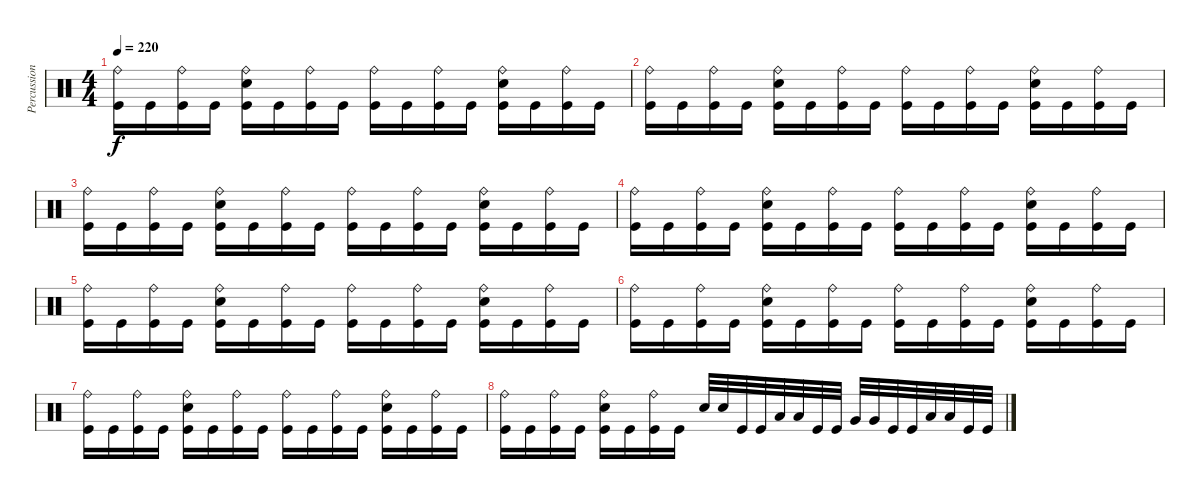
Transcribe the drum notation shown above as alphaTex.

\track ("Percussion" "Percussion") {instrument percussion}
\staff {score}
\articulation defaults
\ts (4 4)
\tempo 220
\clef neutral
\ks c
("Ride (bell)" "Kick (hit)").16{dy f} "Kick (hit)".16 ("Ride (bell)" "Kick (hit)").16 "Kick (hit)".16 ("Ride (bell)" "Snare (hit) 2" "Kick (hit)").16 "Kick (hit)".16 ("Ride (bell)" "Kick (hit)").16 "Kick (hit)".16 ("Ride (bell)" "Kick (hit)").16 "Kick (hit)".16 ("Ride (bell)" "Kick (hit)").16 "Kick (hit)".16 ("Ride (bell)" "Snare (hit) 2" "Kick (hit)").16 "Kick (hit)".16 ("Ride (bell)" "Kick (hit)").16 "Kick (hit)".16 |
("Ride (bell)" "Kick (hit)").16 "Kick (hit)".16 ("Ride (bell)" "Kick (hit)").16 "Kick (hit)".16 ("Ride (bell)" "Snare (hit) 2" "Kick (hit)").16 "Kick (hit)".16 ("Ride (bell)" "Kick (hit)").16 "Kick (hit)".16 ("Ride (bell)" "Kick (hit)").16 "Kick (hit)".16 ("Ride (bell)" "Kick (hit)").16 "Kick (hit)".16 ("Ride (bell)" "Snare (hit) 2" "Kick (hit)").16 "Kick (hit)".16 ("Ride (bell)" "Kick (hit)").16 "Kick (hit)".16 |
("Ride (bell)" "Kick (hit)").16 "Kick (hit)".16 ("Ride (bell)" "Kick (hit)").16 "Kick (hit)".16 ("Ride (bell)" "Snare (hit) 2" "Kick (hit)").16 "Kick (hit)".16 ("Ride (bell)" "Kick (hit)").16 "Kick (hit)".16 ("Ride (bell)" "Kick (hit)").16 "Kick (hit)".16 ("Ride (bell)" "Kick (hit)").16 "Kick (hit)".16 ("Ride (bell)" "Snare (hit) 2" "Kick (hit)").16 "Kick (hit)".16 ("Ride (bell)" "Kick (hit)").16 "Kick (hit)".16 |
("Ride (bell)" "Kick (hit)").16 "Kick (hit)".16 ("Ride (bell)" "Kick (hit)").16 "Kick (hit)".16 ("Ride (bell)" "Snare (hit) 2" "Kick (hit)").16 "Kick (hit)".16 ("Ride (bell)" "Kick (hit)").16 "Kick (hit)".16 ("Ride (bell)" "Kick (hit)").16 "Kick (hit)".16 ("Ride (bell)" "Kick (hit)").16 "Kick (hit)".16 ("Ride (bell)" "Snare (hit) 2" "Kick (hit)").16 "Kick (hit)".16 ("Ride (bell)" "Kick (hit)").16 "Kick (hit)".16 |
("Ride (bell)" "Kick (hit)").16 "Kick (hit)".16 ("Ride (bell)" "Kick (hit)").16 "Kick (hit)".16 ("Ride (bell)" "Snare (hit) 2" "Kick (hit)").16 "Kick (hit)".16 ("Ride (bell)" "Kick (hit)").16 "Kick (hit)".16 ("Ride (bell)" "Kick (hit)").16 "Kick (hit)".16 ("Ride (bell)" "Kick (hit)").16 "Kick (hit)".16 ("Ride (bell)" "Snare (hit) 2" "Kick (hit)").16 "Kick (hit)".16 ("Ride (bell)" "Kick (hit)").16 "Kick (hit)".16 |
("Ride (bell)" "Kick (hit)").16 "Kick (hit)".16 ("Ride (bell)" "Kick (hit)").16 "Kick (hit)".16 ("Ride (bell)" "Snare (hit) 2" "Kick (hit)").16 "Kick (hit)".16 ("Ride (bell)" "Kick (hit)").16 "Kick (hit)".16 ("Ride (bell)" "Kick (hit)").16 "Kick (hit)".16 ("Ride (bell)" "Kick (hit)").16 "Kick (hit)".16 ("Ride (bell)" "Snare (hit) 2" "Kick (hit)").16 "Kick (hit)".16 ("Ride (bell)" "Kick (hit)").16 "Kick (hit)".16 |
("Ride (bell)" "Kick (hit)").16 "Kick (hit)".16 ("Ride (bell)" "Kick (hit)").16 "Kick (hit)".16 ("Ride (bell)" "Snare (hit) 2" "Kick (hit)").16 "Kick (hit)".16 ("Ride (bell)" "Kick (hit)").16 "Kick (hit)".16 ("Ride (bell)" "Kick (hit)").16 "Kick (hit)".16 ("Ride (bell)" "Kick (hit)").16 "Kick (hit)".16 ("Ride (bell)" "Snare (hit) 2" "Kick (hit)").16 "Kick (hit)".16 ("Ride (bell)" "Kick (hit)").16 "Kick (hit)".16 |
("Ride (bell)" "Kick (hit)").16 "Kick (hit)".16 ("Ride (bell)" "Kick (hit)").16 "Kick (hit)".16 ("Ride (bell)" "Snare (hit) 2" "Kick (hit)").16 "Kick (hit)".16 ("Ride (bell)" "Kick (hit)").16 "Kick (hit)".16 "Snare (hit) 2".32 "Snare (hit) 2".32 "Kick (hit)".32 "Kick (hit)".32 "Low Tom (hit)".32 "Low Tom (hit)".32 "Kick (hit)".32 "Kick (hit)".32 "Very Low Tom (hit)".32 "Very Low Tom (hit)".32 "Kick (hit)".32 "Kick (hit)".32 "Low Floor Tom (hit)".32 "Low Floor Tom (hit)".32 "Kick (hit)".32 "Kick (hit)".32
